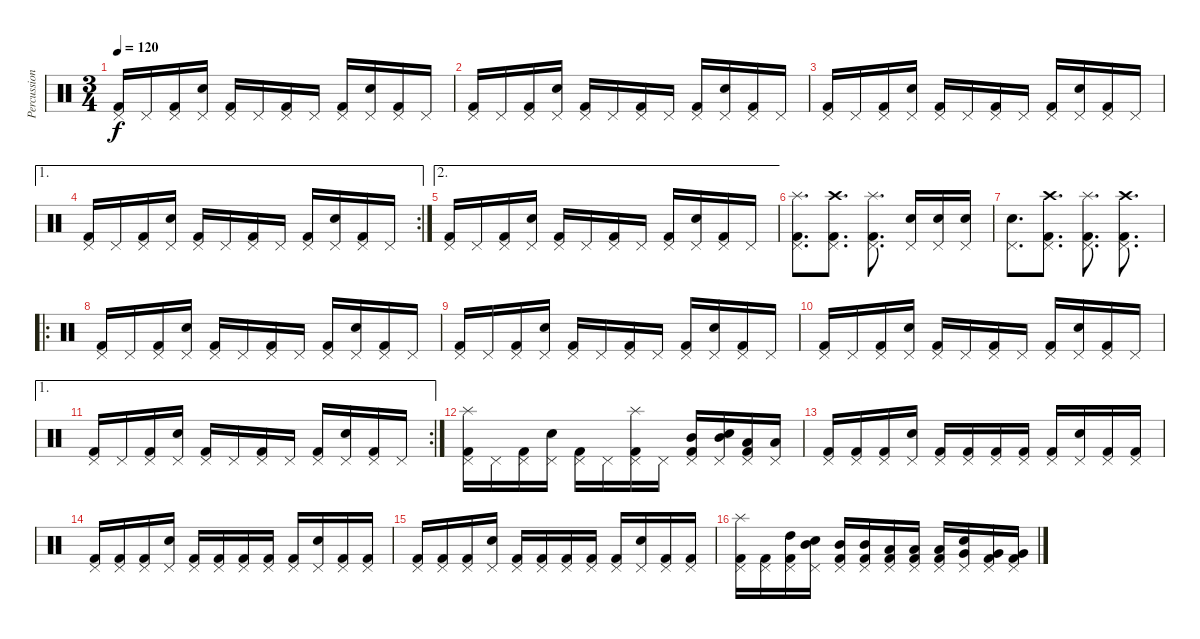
\track ("Percussion" "Percussion") {instrument percussion}
\staff {score}
\articulation defaults
\ts (3 4)
\tempo 120
\clef neutral
\ks c
("Kick (hit) 2" "Pedal Hi-Hat (hit)").16{dy f} "Pedal Hi-Hat (hit)".16 ("Kick (hit) 2" "Pedal Hi-Hat (hit)").16 ("Pedal Hi-Hat (hit)" "Electric Snare (hit)").16 ("Kick (hit) 2" "Pedal Hi-Hat (hit)").16 "Pedal Hi-Hat (hit)".16 ("Kick (hit) 2" "Pedal Hi-Hat (hit)").16 "Pedal Hi-Hat (hit)".16 ("Kick (hit) 2" "Pedal Hi-Hat (hit)").16 ("Pedal Hi-Hat (hit)" "Electric Snare (hit)").16 ("Kick (hit) 2" "Pedal Hi-Hat (hit)").16 "Pedal Hi-Hat (hit)".16 |
("Kick (hit) 2" "Pedal Hi-Hat (hit)").16 "Pedal Hi-Hat (hit)".16 ("Kick (hit) 2" "Pedal Hi-Hat (hit)").16 ("Pedal Hi-Hat (hit)" "Electric Snare (hit)").16 ("Kick (hit) 2" "Pedal Hi-Hat (hit)").16 "Pedal Hi-Hat (hit)".16 ("Kick (hit) 2" "Pedal Hi-Hat (hit)").16 "Pedal Hi-Hat (hit)".16 ("Kick (hit) 2" "Pedal Hi-Hat (hit)").16 ("Pedal Hi-Hat (hit)" "Electric Snare (hit)").16 ("Kick (hit) 2" "Pedal Hi-Hat (hit)").16 "Pedal Hi-Hat (hit)".16 |
("Kick (hit) 2" "Pedal Hi-Hat (hit)").16 "Pedal Hi-Hat (hit)".16 ("Kick (hit) 2" "Pedal Hi-Hat (hit)").16 ("Pedal Hi-Hat (hit)" "Electric Snare (hit)").16 ("Kick (hit) 2" "Pedal Hi-Hat (hit)").16 "Pedal Hi-Hat (hit)".16 ("Kick (hit) 2" "Pedal Hi-Hat (hit)").16 "Pedal Hi-Hat (hit)".16 ("Kick (hit) 2" "Pedal Hi-Hat (hit)").16 ("Pedal Hi-Hat (hit)" "Electric Snare (hit)").16 ("Kick (hit) 2" "Pedal Hi-Hat (hit)").16 "Pedal Hi-Hat (hit)".16 |
\ae 1
\rc 2
("Kick (hit) 2" "Pedal Hi-Hat (hit)").16 "Pedal Hi-Hat (hit)".16 ("Kick (hit) 2" "Pedal Hi-Hat (hit)").16 ("Pedal Hi-Hat (hit)" "Electric Snare (hit)").16 ("Kick (hit) 2" "Pedal Hi-Hat (hit)").16 "Pedal Hi-Hat (hit)".16 ("Kick (hit) 2" "Pedal Hi-Hat (hit)").16 "Pedal Hi-Hat (hit)".16 ("Kick (hit) 2" "Pedal Hi-Hat (hit)").16 ("Pedal Hi-Hat (hit)" "Electric Snare (hit)").16 ("Kick (hit) 2" "Pedal Hi-Hat (hit)").16 "Pedal Hi-Hat (hit)".16 |
\ae 2
("Kick (hit) 2" "Pedal Hi-Hat (hit)").16 "Pedal Hi-Hat (hit)".16 ("Kick (hit) 2" "Pedal Hi-Hat (hit)").16 ("Pedal Hi-Hat (hit)" "Electric Snare (hit)").16 ("Kick (hit) 2" "Pedal Hi-Hat (hit)").16 "Pedal Hi-Hat (hit)".16 ("Kick (hit) 2" "Pedal Hi-Hat (hit)").16 "Pedal Hi-Hat (hit)".16 ("Kick (hit) 2" "Pedal Hi-Hat (hit)").16 ("Pedal Hi-Hat (hit)" "Electric Snare (hit)").16 ("Kick (hit) 2" "Pedal Hi-Hat (hit)").16 "Pedal Hi-Hat (hit)".16 |
("Kick (hit) 2" "Pedal Hi-Hat (hit)" "Splash (hit)").8{d} ("Kick (hit) 2" "Pedal Hi-Hat (hit)" "Crash high (hit)").8{d} ("Kick (hit) 2" "Pedal Hi-Hat (hit)" "Splash (hit)").8{d} ("Pedal Hi-Hat (hit)" "Electric Snare (hit)").16 ("Pedal Hi-Hat (hit)" "Electric Snare (hit)").16 ("Pedal Hi-Hat (hit)" "Electric Snare (hit)").16 |
("Pedal Hi-Hat (hit)" "Electric Snare (hit)").8{d} ("Kick (hit) 2" "Pedal Hi-Hat (hit)" "Crash high (hit)").8{d} ("Kick (hit) 2" "Pedal Hi-Hat (hit)" "Splash (hit)").8{d} ("Kick (hit) 2" "Pedal Hi-Hat (hit)" "Crash high (hit)").8{d} |
\ro
("Kick (hit) 2" "Pedal Hi-Hat (hit)").16 "Pedal Hi-Hat (hit)".16 ("Kick (hit) 2" "Pedal Hi-Hat (hit)").16 ("Pedal Hi-Hat (hit)" "Electric Snare (hit)").16 ("Kick (hit) 2" "Pedal Hi-Hat (hit)").16 "Pedal Hi-Hat (hit)".16 ("Kick (hit) 2" "Pedal Hi-Hat (hit)").16 "Pedal Hi-Hat (hit)".16 ("Kick (hit) 2" "Pedal Hi-Hat (hit)").16 ("Pedal Hi-Hat (hit)" "Electric Snare (hit)").16 ("Kick (hit) 2" "Pedal Hi-Hat (hit)").16 "Pedal Hi-Hat (hit)".16 |
("Kick (hit) 2" "Pedal Hi-Hat (hit)").16 "Pedal Hi-Hat (hit)".16 ("Kick (hit) 2" "Pedal Hi-Hat (hit)").16 ("Pedal Hi-Hat (hit)" "Electric Snare (hit)").16 ("Kick (hit) 2" "Pedal Hi-Hat (hit)").16 "Pedal Hi-Hat (hit)".16 ("Kick (hit) 2" "Pedal Hi-Hat (hit)").16 "Pedal Hi-Hat (hit)".16 ("Kick (hit) 2" "Pedal Hi-Hat (hit)").16 ("Pedal Hi-Hat (hit)" "Electric Snare (hit)").16 ("Kick (hit) 2" "Pedal Hi-Hat (hit)").16 "Pedal Hi-Hat (hit)".16 |
("Kick (hit) 2" "Pedal Hi-Hat (hit)").16 "Pedal Hi-Hat (hit)".16 ("Kick (hit) 2" "Pedal Hi-Hat (hit)").16 ("Pedal Hi-Hat (hit)" "Electric Snare (hit)").16 ("Kick (hit) 2" "Pedal Hi-Hat (hit)").16 "Pedal Hi-Hat (hit)".16 ("Kick (hit) 2" "Pedal Hi-Hat (hit)").16 "Pedal Hi-Hat (hit)".16 ("Kick (hit) 2" "Pedal Hi-Hat (hit)").16 ("Pedal Hi-Hat (hit)" "Electric Snare (hit)").16 ("Kick (hit) 2" "Pedal Hi-Hat (hit)").16 "Pedal Hi-Hat (hit)".16 |
\ae 1
\rc 2
("Kick (hit) 2" "Pedal Hi-Hat (hit)").16 "Pedal Hi-Hat (hit)".16 ("Kick (hit) 2" "Pedal Hi-Hat (hit)").16 ("Pedal Hi-Hat (hit)" "Electric Snare (hit)").16 ("Kick (hit) 2" "Pedal Hi-Hat (hit)").16 "Pedal Hi-Hat (hit)".16 ("Kick (hit) 2" "Pedal Hi-Hat (hit)").16 "Pedal Hi-Hat (hit)".16 ("Kick (hit) 2" "Pedal Hi-Hat (hit)").16 ("Pedal Hi-Hat (hit)" "Electric Snare (hit)").16 ("Kick (hit) 2" "Pedal Hi-Hat (hit)").16 "Pedal Hi-Hat (hit)".16 |
("Kick (hit) 2" "Pedal Hi-Hat (hit)" "Splash (hit)").16 "Pedal Hi-Hat (hit)".16 ("Kick (hit) 2" "Pedal Hi-Hat (hit)").16 ("Pedal Hi-Hat (hit)" "Electric Snare (hit)").16 ("Kick (hit) 2" "Pedal Hi-Hat (hit)").16 "Pedal Hi-Hat (hit)".16 ("Kick (hit) 2" "Pedal Hi-Hat (hit)" "Splash (hit)").16 "Pedal Hi-Hat (hit)".16 ("Kick (hit) 2" "Pedal Hi-Hat (hit)" "Mid Tom (hit)").16 ("Pedal Hi-Hat (hit)" "Electric Snare (hit)" "Mid Tom (hit)").16 ("Kick (hit) 2" "Pedal Hi-Hat (hit)" "Low Tom (hit)").16 ("Pedal Hi-Hat (hit)" "Low Tom (hit)").16 |
("Kick (hit) 2" "Pedal Hi-Hat (hit)").16 ("Kick (hit) 2" "Pedal Hi-Hat (hit)").16 ("Kick (hit) 2" "Pedal Hi-Hat (hit)").16 ("Pedal Hi-Hat (hit)" "Electric Snare (hit)").16 ("Kick (hit) 2" "Pedal Hi-Hat (hit)").16 ("Kick (hit) 2" "Pedal Hi-Hat (hit)").16 ("Kick (hit) 2" "Pedal Hi-Hat (hit)").16 ("Kick (hit) 2" "Pedal Hi-Hat (hit)").16 ("Kick (hit) 2" "Pedal Hi-Hat (hit)").16 ("Pedal Hi-Hat (hit)" "Electric Snare (hit)").16 ("Kick (hit) 2" "Pedal Hi-Hat (hit)").16 ("Kick (hit) 2" "Pedal Hi-Hat (hit)").16 |
("Kick (hit) 2" "Pedal Hi-Hat (hit)").16 ("Kick (hit) 2" "Pedal Hi-Hat (hit)").16 ("Kick (hit) 2" "Pedal Hi-Hat (hit)").16 ("Pedal Hi-Hat (hit)" "Electric Snare (hit)").16 ("Kick (hit) 2" "Pedal Hi-Hat (hit)").16 ("Kick (hit) 2" "Pedal Hi-Hat (hit)").16 ("Kick (hit) 2" "Pedal Hi-Hat (hit)").16 ("Kick (hit) 2" "Pedal Hi-Hat (hit)").16 ("Kick (hit) 2" "Pedal Hi-Hat (hit)").16 ("Pedal Hi-Hat (hit)" "Electric Snare (hit)").16 ("Kick (hit) 2" "Pedal Hi-Hat (hit)").16 ("Kick (hit) 2" "Pedal Hi-Hat (hit)").16 |
("Kick (hit) 2" "Pedal Hi-Hat (hit)").16 ("Kick (hit) 2" "Pedal Hi-Hat (hit)").16 ("Kick (hit) 2" "Pedal Hi-Hat (hit)").16 ("Pedal Hi-Hat (hit)" "Electric Snare (hit)").16 ("Kick (hit) 2" "Pedal Hi-Hat (hit)").16 ("Kick (hit) 2" "Pedal Hi-Hat (hit)").16 ("Kick (hit) 2" "Pedal Hi-Hat (hit)").16 ("Kick (hit) 2" "Pedal Hi-Hat (hit)").16 ("Kick (hit) 2" "Pedal Hi-Hat (hit)").16 ("Pedal Hi-Hat (hit)" "Electric Snare (hit)").16 ("Kick (hit) 2" "Pedal Hi-Hat (hit)").16 ("Kick (hit) 2" "Pedal Hi-Hat (hit)").16 |
("Kick (hit) 2" "Pedal Hi-Hat (hit)" "Splash (hit)").16 ("Kick (hit) 2" "Pedal Hi-Hat (hit)").16 ("Kick (hit) 2" "Pedal Hi-Hat (hit)" "High Tom (hit)").16 ("Pedal Hi-Hat (hit)" "Electric Snare (hit)" "Mid Tom (hit)").16 ("Kick (hit) 2" "Pedal Hi-Hat (hit)" "Mid Tom (hit)").16 ("Kick (hit) 2" "Pedal Hi-Hat (hit)" "Mid Tom (hit)").16 ("Kick (hit) 2" "Pedal Hi-Hat (hit)" "Low Tom (hit)").16 ("Kick (hit) 2" "Pedal Hi-Hat (hit)" "Low Tom (hit)").16 ("Kick (hit) 2" "Pedal Hi-Hat (hit)" "Low Tom (hit)").16 ("Pedal Hi-Hat (hit)" "Electric Snare (hit)" "Very Low Tom (hit)").16 ("Kick (hit) 2" "Pedal Hi-Hat (hit)" "Very Low Tom (hit)").16 ("Kick (hit) 2" "Pedal Hi-Hat (hit)" "Very Low Tom (hit)").16
